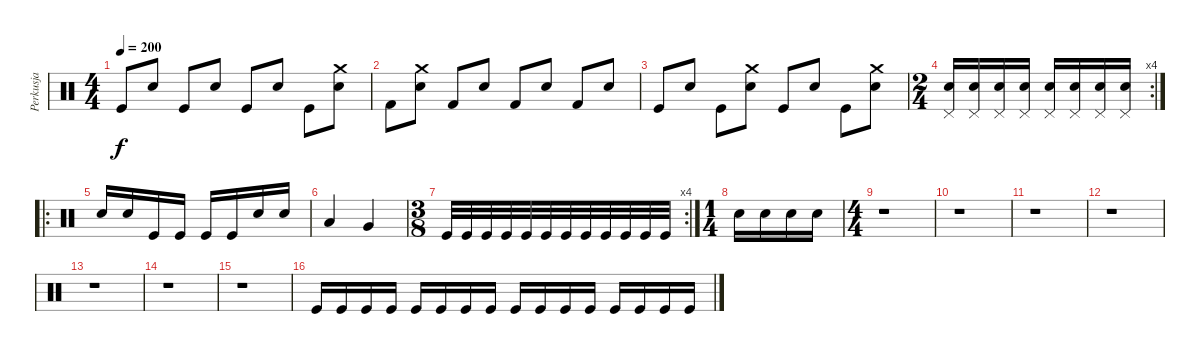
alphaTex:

\track ("Perkusja" "Perkusja") {instrument percussion}
\staff {score}
\articulation defaults
\ts (4 4)
\tempo 200
\clef neutral
\ks c "Kick (hit)".8{dy f} "Electric Snare (hit)".8 "Kick (hit)".8 "Electric Snare (hit)".8 "Kick (hit)".8 "Electric Snare (hit)".8 "Kick (hit)".8
("Crash medium (hit)" "Electric Snare (hit)").8 |
"Kick (hit) 2".8 ("Crash medium (hit)" "Electric Snare (hit)").8 "Kick (hit) 2".8 "Electric Snare (hit)".8 "Kick (hit) 2".8 "Electric Snare (hit)".8 "Kick (hit) 2".8 "Electric Snare (hit)".8 |
"Kick (hit)".8 "Electric Snare (hit)".8 "Kick (hit)".8 ("Crash medium (hit)" "Electric Snare (hit)").8 "Kick (hit)".8 "Electric Snare (hit)".8 "Kick (hit)".8 ("Crash medium (hit)" "Electric Snare (hit)").8 |
\rc 4
\ts (2 4)
("Pedal Hi-Hat (hit)" "Electric Snare (hit)").16 ("Pedal Hi-Hat (hit)" "Electric Snare (hit)").16 ("Pedal Hi-Hat (hit)" "Electric Snare (hit)").16 ("Pedal Hi-Hat (hit)" "Electric Snare (hit)").16 ("Pedal Hi-Hat (hit)" "Electric Snare (hit)").16 ("Pedal Hi-Hat (hit)" "Electric Snare (hit)").16 ("Pedal Hi-Hat (hit)" "Electric Snare (hit)").16 ("Pedal Hi-Hat (hit)" "Electric Snare (hit)").16 |
\ro "Electric Snare (hit)".16 "Electric Snare (hit)".16 "Kick (hit)".16 "Kick (hit)".16 "Kick (hit)".16 "Kick (hit)".16 "Electric Snare (hit)".16 "Electric Snare (hit)".16
|
"Low Tom (hit)".4 "Very Low Tom (hit)".4 |
\rc 4
\ts (3 8)
"Kick (hit)".32 "Kick (hit)".32 "Kick (hit)".32 "Kick (hit)".32 "Kick (hit)".32 "Kick (hit)".32 "Kick (hit)".32 "Kick (hit)".32 "Kick (hit)".32 "Kick (hit)".32 "Kick (hit)".32 "Kick (hit)".32 |
\ts (1 4)
"Electric Snare (hit)".16 "Electric Snare (hit)".16 "Electric Snare (hit)".16 "Electric Snare (hit)".16 |
\ts (4 4)
r.1 |
r.1 |
r.1 |
r.1 |
r.1 |
r.1 |
r.1 |
"Kick (hit)".16 "Kick (hit)".16 "Kick (hit)".16 "Kick (hit)".16 "Kick (hit)".16 "Kick (hit)".16 "Kick (hit)".16 "Kick (hit)".16 "Kick (hit)".16 "Kick (hit)".16 "Kick (hit)".16 "Kick (hit)".16 "Kick (hit)".16 "Kick (hit)".16 "Kick (hit)".16 "Kick (hit)".16
